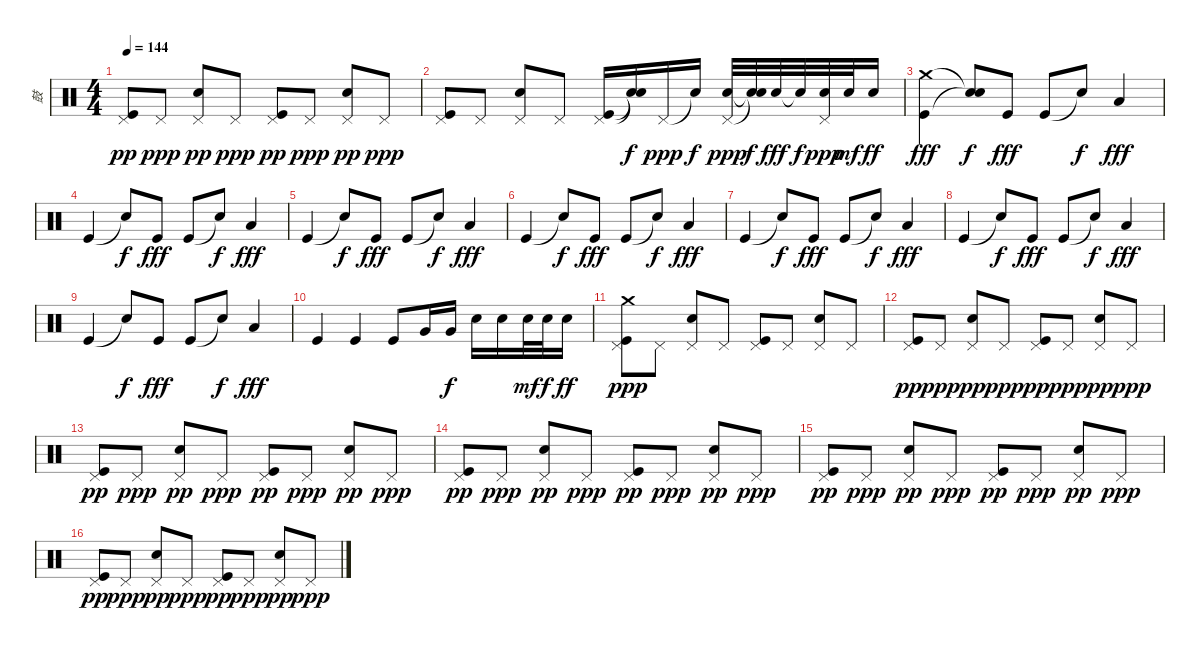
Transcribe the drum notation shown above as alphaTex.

\track ("鼓" "鼓") {instrument percussion}
\staff {score}
\articulation defaults
\ts (4 4)
\tempo 144
\clef neutral
\ks c
("Kick (hit)" "Pedal Hi-Hat (hit)").8{dy pp} "Pedal Hi-Hat (hit)".8{dy ppp} ("Snare (hit) 2" "Pedal Hi-Hat (hit)").8{dy pp} "Pedal Hi-Hat (hit)".8{dy ppp} ("Kick (hit)" "Pedal Hi-Hat (hit)").8{dy pp} "Pedal Hi-Hat (hit)".8{dy ppp} ("Snare (hit) 2" "Pedal Hi-Hat (hit)").8{dy pp} "Pedal Hi-Hat (hit)".8{dy ppp} |
("Kick (hit)" "Pedal Hi-Hat (hit)").8 "Pedal Hi-Hat (hit)".8 ("Snare (hit) 2" "Pedal Hi-Hat (hit)").8 "Pedal Hi-Hat (hit)".8 ("Kick (hit)" "Pedal Hi-Hat (hit)").16 ("Snare (hit)"{t} "Snare (hit)"{t}).16{dy f} "Pedal Hi-Hat (hit)".16{dy ppp} "Snare (hit)"{t}.16{dy f} ("Snare (hit) 2" "Pedal Hi-Hat (hit)").32{dy ppp} ("Snare (hit)"{t} "Snare (hit)"{t}).32{dy f} "Snare (hit) 2".32{dy fff} "Snare (hit)"{t}.32{dy f} ("Snare (hit) 2" "Pedal Hi-Hat (hit)").32{dy ppp} "Snare (hit) 2".32{dy mf} "Snare (hit) 2".16{dy ff} |
("Kick (hit)" "Crash medium (hit)").4{dy fff} ("Snare (hit)"{t} "Snare (hit)"{t}).8{dy f} "Kick (hit)".8{dy fff} "Kick (hit)".8 "Snare (hit)"{t}.8{dy f} "Low Floor Tom (hit)".4{dy fff} |
"Kick (hit)".4 "Snare (hit)"{t}.8{dy f} "Kick (hit)".8{dy fff} "Kick (hit)".8 "Snare (hit)"{t}.8{dy f} "Low Floor Tom (hit)".4{dy fff} |
"Kick (hit)".4 "Snare (hit)"{t}.8{dy f} "Kick (hit)".8{dy fff} "Kick (hit)".8 "Snare (hit)"{t}.8{dy f} "Low Floor Tom (hit)".4{dy fff} |
"Kick (hit)".4 "Snare (hit)"{t}.8{dy f} "Kick (hit)".8{dy fff} "Kick (hit)".8 "Snare (hit)"{t}.8{dy f} "Low Floor Tom (hit)".4{dy fff} |
"Kick (hit)".4 "Snare (hit)"{t}.8{dy f} "Kick (hit)".8{dy fff} "Kick (hit)".8 "Snare (hit)"{t}.8{dy f} "Low Floor Tom (hit)".4{dy fff} |
"Kick (hit)".4 "Snare (hit)"{t}.8{dy f} "Kick (hit)".8{dy fff} "Kick (hit)".8 "Snare (hit)"{t}.8{dy f} "Low Floor Tom (hit)".4{dy fff} |
"Kick (hit)".4 "Snare (hit)"{t}.8{dy f} "Kick (hit)".8{dy fff} "Kick (hit)".8 "Snare (hit)"{t}.8{dy f} "Low Floor Tom (hit)".4{dy fff} |
"Kick (hit)".4 "Kick (hit)".4 "Kick (hit)".8 "Very Low Tom (hit)".16 "Very Low Tom (hit)".16{dy f} "Snare (hit) 2".16 "Snare (hit) 2".16 "Snare (hit) 2".32{dy mf} "Snare (hit) 2".32{dy f} "Snare (hit) 2".16{dy ff} |
("Crash medium (hit)" "Kick (hit)" "Pedal Hi-Hat (hit)").8{dy ppp} "Pedal Hi-Hat (hit)".8 ("Snare (hit) 2" "Pedal Hi-Hat (hit)").8 "Pedal Hi-Hat (hit)".8 ("Kick (hit)" "Pedal Hi-Hat (hit)").8 "Pedal Hi-Hat (hit)".8 ("Snare (hit) 2" "Pedal Hi-Hat (hit)").8 "Pedal Hi-Hat (hit)".8 |
("Kick (hit)" "Pedal Hi-Hat (hit)").8{dy pp} "Pedal Hi-Hat (hit)".8{dy ppp} ("Snare (hit) 2" "Pedal Hi-Hat (hit)").8{dy pp} "Pedal Hi-Hat (hit)".8{dy ppp} ("Kick (hit)" "Pedal Hi-Hat (hit)").8{dy pp} "Pedal Hi-Hat (hit)".8{dy ppp} ("Snare (hit) 2" "Pedal Hi-Hat (hit)").8{dy pp} "Pedal Hi-Hat (hit)".8{dy ppp} |
("Kick (hit)" "Pedal Hi-Hat (hit)").8{dy pp} "Pedal Hi-Hat (hit)".8{dy ppp} ("Snare (hit) 2" "Pedal Hi-Hat (hit)").8{dy pp} "Pedal Hi-Hat (hit)".8{dy ppp} ("Kick (hit)" "Pedal Hi-Hat (hit)").8{dy pp} "Pedal Hi-Hat (hit)".8{dy ppp} ("Snare (hit) 2" "Pedal Hi-Hat (hit)").8{dy pp} "Pedal Hi-Hat (hit)".8{dy ppp} |
("Kick (hit)" "Pedal Hi-Hat (hit)").8{dy pp} "Pedal Hi-Hat (hit)".8{dy ppp} ("Snare (hit) 2" "Pedal Hi-Hat (hit)").8{dy pp} "Pedal Hi-Hat (hit)".8{dy ppp} ("Kick (hit)" "Pedal Hi-Hat (hit)").8{dy pp} "Pedal Hi-Hat (hit)".8{dy ppp} ("Snare (hit) 2" "Pedal Hi-Hat (hit)").8{dy pp} "Pedal Hi-Hat (hit)".8{dy ppp} |
("Kick (hit)" "Pedal Hi-Hat (hit)").8{dy pp} "Pedal Hi-Hat (hit)".8{dy ppp} ("Snare (hit) 2" "Pedal Hi-Hat (hit)").8{dy pp} "Pedal Hi-Hat (hit)".8{dy ppp} ("Kick (hit)" "Pedal Hi-Hat (hit)").8{dy pp} "Pedal Hi-Hat (hit)".8{dy ppp} ("Snare (hit) 2" "Pedal Hi-Hat (hit)").8{dy pp} "Pedal Hi-Hat (hit)".8{dy ppp} |
("Kick (hit)" "Pedal Hi-Hat (hit)").8{dy pp} "Pedal Hi-Hat (hit)".8{dy ppp} ("Snare (hit) 2" "Pedal Hi-Hat (hit)").8{dy pp} "Pedal Hi-Hat (hit)".8{dy ppp} ("Kick (hit)" "Pedal Hi-Hat (hit)").8{dy pp} "Pedal Hi-Hat (hit)".8{dy ppp} ("Snare (hit) 2" "Pedal Hi-Hat (hit)").8{dy pp} "Pedal Hi-Hat (hit)".8{dy ppp}
